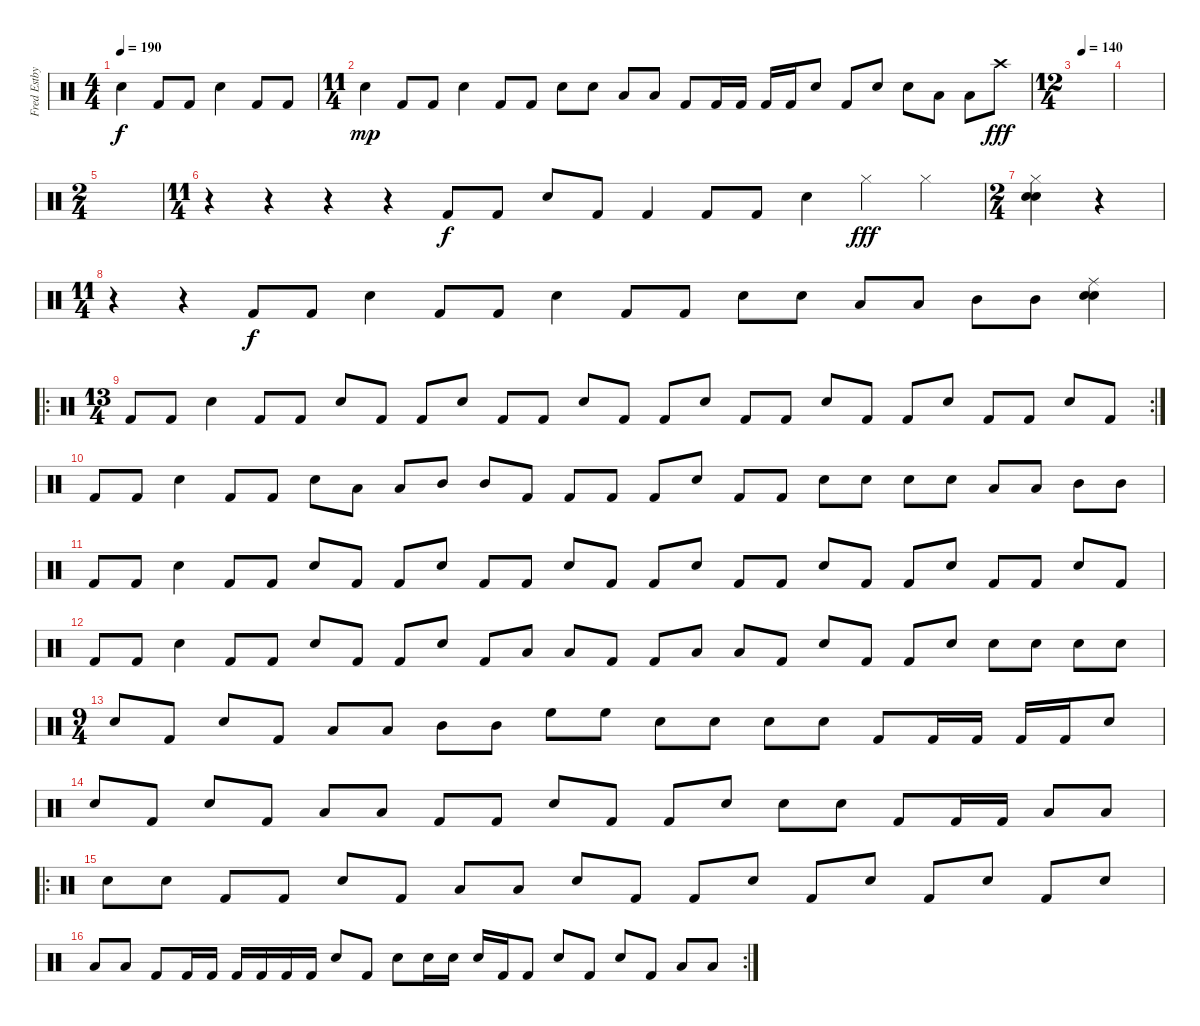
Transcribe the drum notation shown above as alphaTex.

\track ("Fred Estby" "Fred Estby") {instrument percussion}
\staff {score}
\articulation defaults
\ts (4 4)
\tempo 190
\clef neutral
\ks c "Electric Snare (hit)".4{dy f} "Kick (hit) 2".8 "Kick (hit) 2".8 "Electric Snare (hit)".4 "Kick (hit) 2".8 "Kick (hit) 2".8
|
\ts (11 4)
"Electric Snare (hit)".4{dy mp} "Kick (hit) 2".8 "Kick (hit) 2".8 "Electric Snare (hit)".4 "Kick (hit) 2".8 "Kick (hit) 2".8 "Electric Snare (hit)".8 "Electric Snare (hit)".8 "Low Tom (hit)".8 "Low Tom (hit)".8 "Kick (hit) 2".8 "Kick (hit) 2".16 "Kick (hit) 2".16 "Kick (hit) 2".16 "Kick (hit) 2".16 "Electric Snare (hit)".8 "Kick (hit) 2".8 "Electric Snare (hit)".8 "Electric Snare (hit)".8 "Low Tom (hit)".8 "Low Tom (hit)".8 "Crash high (hit)".8{dy fff} |
\ts (12 4)
\tempo (140 0.16666666666666666)
|
|
\ts (2 4)
|
\ts (11 4)
r.4 r.4 r.4 r.4 "Kick (hit) 2".8{dy f} "Kick (hit) 2".8 "Electric Snare (hit)".8 "Kick (hit) 2".8 "Kick (hit) 2".4 "Kick (hit) 2".8 "Kick (hit) 2".8 "Electric Snare (hit)".4 "Hi-Hat (closed)".4{dy fff} "Hi-Hat (closed)".4 |
\ts (2 4)
("Electric Snare (hit)" "Electric Snare (hit)" "Hi-Hat (closed)").4 r.4 |
\ts (11 4)
r.4 r.4 "Kick (hit) 2".8{dy f} "Kick (hit) 2".8 "Electric Snare (hit)".4 "Kick (hit) 2".8 "Kick (hit) 2".8 "Electric Snare (hit)".4 "Kick (hit) 2".8 "Kick (hit) 2".8 "Electric Snare (hit)".8 "Electric Snare (hit)".8 "Low Tom (hit)".8 "Low Tom (hit)".8 "Mid Tom (hit)".8 "Mid Tom (hit)".8 ("Electric Snare (hit)" "Electric Snare (hit)" "Ride (middle)").4 |
\ro
\rc 2
\ts (13 4)
"Kick (hit) 2".8 "Kick (hit) 2".8 "Electric Snare (hit)".4 "Kick (hit) 2".8 "Kick (hit) 2".8 "Electric Snare (hit)".8 "Kick (hit) 2".8 "Kick (hit) 2".8 "Electric Snare (hit)".8 "Kick (hit) 2".8 "Kick (hit) 2".8 "Electric Snare (hit)".8 "Kick (hit) 2".8 "Kick (hit) 2".8 "Electric Snare (hit)".8 "Kick (hit) 2".8 "Kick (hit) 2".8 "Electric Snare (hit)".8 "Kick (hit) 2".8 "Kick (hit) 2".8 "Electric Snare (hit)".8 "Kick (hit) 2".8 "Kick (hit) 2".8 "Electric Snare (hit)".8 "Kick (hit) 2".8 |
"Kick (hit) 2".8 "Kick (hit) 2".8 "Electric Snare (hit)".4 "Kick (hit) 2".8 "Kick (hit) 2".8 "Electric Snare (hit)".8 "Low Tom (hit)".8 "Low Tom (hit)".8 "Mid Tom (hit)".8 "Mid Tom (hit)".8 "Kick (hit) 2".8 "Kick (hit) 2".8 "Kick (hit) 2".8 "Kick (hit) 2".8 "Electric Snare (hit)".8 "Kick (hit) 2".8 "Kick (hit) 2".8 "Electric Snare (hit)".8 "Electric Snare (hit)".8 "Electric Snare (hit)".8 "Electric Snare (hit)".8 "Low Tom (hit)".8 "Low Tom (hit)".8 "Mid Tom (hit)".8 "Mid Tom (hit)".8 |
"Kick (hit) 2".8 "Kick (hit) 2".8 "Electric Snare (hit)".4 "Kick (hit) 2".8 "Kick (hit) 2".8 "Electric Snare (hit)".8 "Kick (hit) 2".8 "Kick (hit) 2".8 "Electric Snare (hit)".8 "Kick (hit) 2".8 "Kick (hit) 2".8 "Electric Snare (hit)".8 "Kick (hit) 2".8 "Kick (hit) 2".8 "Electric Snare (hit)".8 "Kick (hit) 2".8 "Kick (hit) 2".8 "Electric Snare (hit)".8 "Kick (hit) 2".8 "Kick (hit) 2".8 "Electric Snare (hit)".8 "Kick (hit) 2".8 "Kick (hit) 2".8 "Electric Snare (hit)".8 "Kick (hit) 2".8 |
"Kick (hit) 2".8 "Kick (hit) 2".8 "Electric Snare (hit)".4 "Kick (hit) 2".8 "Kick (hit) 2".8 "Electric Snare (hit)".8 "Kick (hit) 2".8 "Kick (hit) 2".8 "Electric Snare (hit)".8 "Kick (hit) 2".8 "Low Tom (hit)".8 "Low Tom (hit)".8 "Kick (hit) 2".8 "Kick (hit) 2".8 "Low Tom (hit)".8 "Low Tom (hit)".8 "Kick (hit) 2".8 "Electric Snare (hit)".8 "Kick (hit) 2".8 "Kick (hit) 2".8 "Electric Snare (hit)".8 "Electric Snare (hit)".8 "Electric Snare (hit)".8 "Electric Snare (hit)".8 "Electric Snare (hit)".8 |
\ts (9 4)
"Electric Snare (hit)".8 "Kick (hit) 2".8 "Electric Snare (hit)".8 "Kick (hit) 2".8 "Low Tom (hit)".8 "Low Tom (hit)".8 "Mid Tom (hit)".8 "Mid Tom (hit)".8 "High Floor Tom (hit)".8 "High Floor Tom (hit)".8 "Electric Snare (hit)".8 "Electric Snare (hit)".8 "Electric Snare (hit)".8 "Electric Snare (hit)".8 "Kick (hit) 2".8 "Kick (hit) 2".16 "Kick (hit) 2".16 "Kick (hit) 2".16 "Kick (hit) 2".16 "Electric Snare (hit)".8 |
"Electric Snare (hit)".8 "Kick (hit) 2".8 "Electric Snare (hit)".8 "Kick (hit) 2".8 "Low Tom (hit)".8 "Low Tom (hit)".8 "Kick (hit) 2".8 "Kick (hit) 2".8 "Electric Snare (hit)".8 "Kick (hit) 2".8 "Kick (hit) 2".8 "Electric Snare (hit)".8 "Electric Snare (hit)".8 "Electric Snare (hit)".8 "Kick (hit) 2".8 "Kick (hit) 2".16 "Kick (hit) 2".16 "Low Tom (hit)".8 "Low Tom (hit)".8 |
\ro "Electric Snare (hit)".8 "Electric Snare (hit)".8 "Kick (hit) 2".8 "Kick (hit) 2".8 "Electric Snare (hit)".8 "Kick (hit) 2".8 "Low Tom (hit)".8 "Low Tom (hit)".8 "Electric Snare (hit)".8 "Kick (hit) 2".8 "Kick (hit) 2".8 "Electric Snare (hit)".8 "Kick (hit) 2".8 "Electric Snare (hit)".8 "Kick (hit) 2".8 "Electric Snare (hit)".8 "Kick (hit) 2".8 "Electric Snare (hit)".8
|
\rc 2 "Low Tom (hit)".8 "Low Tom (hit)".8 "Kick (hit) 2".8 "Kick (hit) 2".16 "Kick (hit) 2".16 "Kick (hit) 2".16 "Kick (hit) 2".16 "Kick (hit) 2".16 "Kick (hit) 2".16 "Electric Snare (hit)".8 "Kick (hit) 2".8 "Electric Snare (hit)".8 "Electric Snare (hit)".16 "Electric Snare (hit)".16 "Electric Snare (hit)".16 "Kick (hit) 2".16 "Kick (hit) 2".8 "Electric Snare (hit)".8 "Kick (hit) 2".8 "Electric Snare (hit)".8 "Kick (hit) 2".8 "Low Tom (hit)".8 "Low Tom (hit)".8
